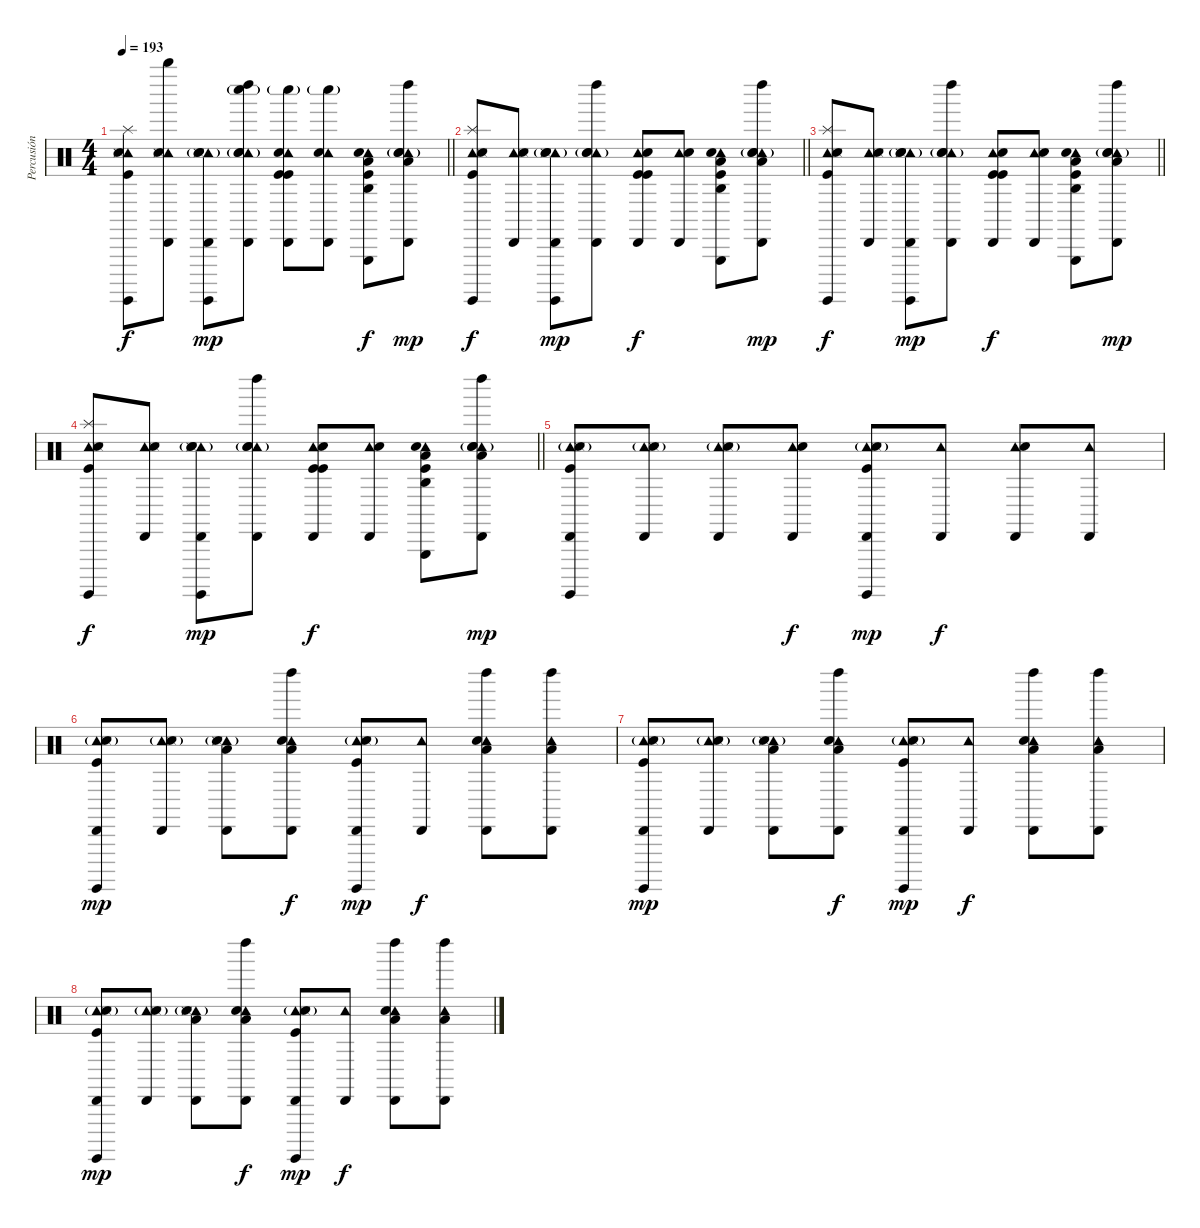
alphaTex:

\track ("Percusión" "Percusión") {instrument percussion}
\staff {score}
\articulation defaults
\ts (4 4)
\tempo 193
\clef neutral
\barLineRight lightlight
\ks c
("Splash (hit)" "Tambourine (hit)" "Hand Clap (hit)" "Metronome (hit)" "Surdo (hit)" "Kick (hit)").8{dy f} ("Cabasa (hit)" "Tambourine (hit)" "Hand Clap (hit)" "Metronome (hit)" "Whistle high (hit)").8 ("Cabasa (hit)" "Tambourine (hit)" "Hand Clap (hit)" "Metronome (hit)" "Surdo (hit)" "Electric Snare (hit)"{g}).8{dy mp} ("Cabasa (hit)" "Tambourine (hit)" "Left Maraca (hit)" "Hand Clap (hit)" "Whistle low (hit)"{g} "Electric Snare (hit)"{g}).8 ("Cabasa (hit)" "Tambourine (hit)" "Hand Clap (hit)" "Whistle low (hit)"{g} "Kick (hit)" "Kick (hit)").8 ("Cabasa (hit)" "Tambourine (hit)" "Hand Clap (hit)" "Whistle low (hit)"{g}).8 ("Triangle (hit)" "Tambourine (hit)" "Hand Clap (hit)" "Agogo high (hit)" "Low Tom (hit)" "Kick (hit)").8{dy f} ("Cabasa (hit)" "Tambourine (hit)" "Left Maraca (hit)" "Hand Clap (hit)" "Low Tom (hit)" "Electric Snare (hit)"{g}).8{dy mp} |
\barLineRight lightlight
("Splash (hit)" "Tambourine (hit)" "Hand Clap (hit)" "Metronome (hit)" "Surdo (hit)" "Kick (hit)").8{dy f} ("Cabasa (hit)" "Tambourine (hit)" "Hand Clap (hit)" "Metronome (hit)").8 ("Cabasa (hit)" "Tambourine (hit)" "Hand Clap (hit)" "Metronome (hit)" "Surdo (hit)" "Electric Snare (hit)"{g}).8{dy mp} ("Cabasa (hit)" "Tambourine (hit)" "Left Maraca (hit)" "Hand Clap (hit)" "Electric Snare (hit)"{g}).8 ("Cabasa (hit)" "Tambourine (hit)" "Hand Clap (hit)" "Kick (hit)" "Kick (hit)").8{dy f} ("Cabasa (hit)" "Tambourine (hit)" "Hand Clap (hit)").8 ("Triangle (hit)" "Tambourine (hit)" "Hand Clap (hit)" "Agogo high (hit)" "Low Tom (hit)" "Kick (hit)").8 ("Cabasa (hit)" "Tambourine (hit)" "Left Maraca (hit)" "Hand Clap (hit)" "Low Tom (hit)" "Electric Snare (hit)"{g}).8{dy mp} |
\barLineRight lightlight
("Splash (hit)" "Tambourine (hit)" "Hand Clap (hit)" "Metronome (hit)" "Surdo (hit)" "Kick (hit)").8{dy f} ("Cabasa (hit)" "Tambourine (hit)" "Hand Clap (hit)" "Metronome (hit)").8 ("Cabasa (hit)" "Tambourine (hit)" "Hand Clap (hit)" "Metronome (hit)" "Surdo (hit)" "Electric Snare (hit)"{g}).8{dy mp} ("Cabasa (hit)" "Tambourine (hit)" "Left Maraca (hit)" "Hand Clap (hit)" "Electric Snare (hit)"{g}).8 ("Cabasa (hit)" "Tambourine (hit)" "Hand Clap (hit)" "Kick (hit)" "Kick (hit)").8{dy f} ("Cabasa (hit)" "Tambourine (hit)" "Hand Clap (hit)").8 ("Triangle (hit)" "Tambourine (hit)" "Hand Clap (hit)" "Agogo high (hit)" "Low Tom (hit)" "Kick (hit)").8 ("Cabasa (hit)" "Tambourine (hit)" "Left Maraca (hit)" "Hand Clap (hit)" "Low Tom (hit)" "Electric Snare (hit)"{g}).8{dy mp} |
\barLineRight lightlight
("Splash (hit)" "Tambourine (hit)" "Hand Clap (hit)" "Metronome (hit)" "Surdo (hit)" "Kick (hit)").8{dy f} ("Cabasa (hit)" "Tambourine (hit)" "Hand Clap (hit)" "Metronome (hit)").8 ("Cabasa (hit)" "Tambourine (hit)" "Hand Clap (hit)" "Metronome (hit)" "Surdo (hit)" "Electric Snare (hit)"{g}).8{dy mp} ("Cabasa (hit)" "Tambourine (hit)" "Left Maraca (hit)" "Hand Clap (hit)" "Electric Snare (hit)"{g}).8 ("Cabasa (hit)" "Tambourine (hit)" "Hand Clap (hit)" "Kick (hit)" "Kick (hit)").8{dy f} ("Cabasa (hit)" "Tambourine (hit)" "Hand Clap (hit)").8 ("Triangle (hit)" "Tambourine (hit)" "Hand Clap (hit)" "Agogo high (hit)" "Low Tom (hit)" "Kick (hit)").8 ("Cabasa (hit)" "Tambourine (hit)" "Left Maraca (hit)" "Hand Clap (hit)" "Low Tom (hit)" "Electric Snare (hit)"{g}).8{dy mp} |
("Cabasa (hit)" "Tambourine (hit)" "Hand Clap (hit)"{g} "Metronome (hit)" "Surdo (hit)" "Kick (hit)").8 ("Cabasa (hit)" "Tambourine (hit)" "Hand Clap (hit)"{g} "Metronome (hit)").8 ("Cabasa (hit)" "Tambourine (hit)" "Hand Clap (hit)"{g} "Metronome (hit)").8 ("Cabasa (hit)" "Tambourine (hit)" "Electric Snare (hit)").8{dy f} ("Cabasa (hit)" "Tambourine (hit)" "Hand Clap (hit)"{g} "Metronome (hit)" "Surdo (hit)" "Kick (hit)").8{dy mp} ("Cabasa (hit)" "Tambourine (hit)").8{dy f} ("Cabasa (hit)" "Tambourine (hit)" "Electric Snare (hit)").8 ("Cabasa (hit)" "Tambourine (hit)").8 |
("Cabasa (hit)" "Tambourine (hit)" "Hand Clap (hit)"{g} "Metronome (hit)" "Surdo (hit)" "Kick (hit)").8{dy mp} ("Cabasa (hit)" "Tambourine (hit)" "Hand Clap (hit)"{g} "Metronome (hit)").8 ("Cabasa (hit)" "Tambourine (hit)" "Hand Clap (hit)"{g} "Metronome (hit)" "Low Tom (hit)").8 ("Cabasa (hit)" "Tambourine (hit)" "Left Maraca (hit)" "Low Tom (hit)" "Electric Snare (hit)").8{dy f} ("Cabasa (hit)" "Tambourine (hit)" "Hand Clap (hit)"{g} "Metronome (hit)" "Surdo (hit)" "Kick (hit)").8{dy mp} ("Cabasa (hit)" "Tambourine (hit)").8{dy f} ("Cabasa (hit)" "Tambourine (hit)" "Left Maraca (hit)" "Low Tom (hit)" "Electric Snare (hit)").8 ("Cabasa (hit)" "Tambourine (hit)" "Left Maraca (hit)" "Low Tom (hit)").8 |
("Cabasa (hit)" "Tambourine (hit)" "Hand Clap (hit)"{g} "Metronome (hit)" "Surdo (hit)" "Kick (hit)").8{dy mp} ("Cabasa (hit)" "Tambourine (hit)" "Hand Clap (hit)"{g} "Metronome (hit)").8 ("Cabasa (hit)" "Tambourine (hit)" "Hand Clap (hit)"{g} "Metronome (hit)" "Low Tom (hit)").8 ("Cabasa (hit)" "Tambourine (hit)" "Left Maraca (hit)" "Low Tom (hit)" "Electric Snare (hit)").8{dy f} ("Cabasa (hit)" "Tambourine (hit)" "Hand Clap (hit)"{g} "Metronome (hit)" "Surdo (hit)" "Kick (hit)").8{dy mp} ("Cabasa (hit)" "Tambourine (hit)").8{dy f} ("Cabasa (hit)" "Tambourine (hit)" "Left Maraca (hit)" "Low Tom (hit)" "Electric Snare (hit)").8 ("Cabasa (hit)" "Tambourine (hit)" "Left Maraca (hit)" "Low Tom (hit)").8 |
("Cabasa (hit)" "Tambourine (hit)" "Hand Clap (hit)"{g} "Metronome (hit)" "Surdo (hit)" "Kick (hit)").8{dy mp} ("Cabasa (hit)" "Tambourine (hit)" "Hand Clap (hit)"{g} "Metronome (hit)").8 ("Cabasa (hit)" "Tambourine (hit)" "Hand Clap (hit)"{g} "Metronome (hit)" "Low Tom (hit)").8 ("Cabasa (hit)" "Tambourine (hit)" "Left Maraca (hit)" "Low Tom (hit)" "Electric Snare (hit)").8{dy f} ("Cabasa (hit)" "Tambourine (hit)" "Hand Clap (hit)"{g} "Metronome (hit)" "Surdo (hit)" "Kick (hit)").8{dy mp} ("Cabasa (hit)" "Tambourine (hit)").8{dy f} ("Cabasa (hit)" "Tambourine (hit)" "Left Maraca (hit)" "Low Tom (hit)" "Electric Snare (hit)").8 ("Cabasa (hit)" "Tambourine (hit)" "Left Maraca (hit)" "Low Tom (hit)").8
